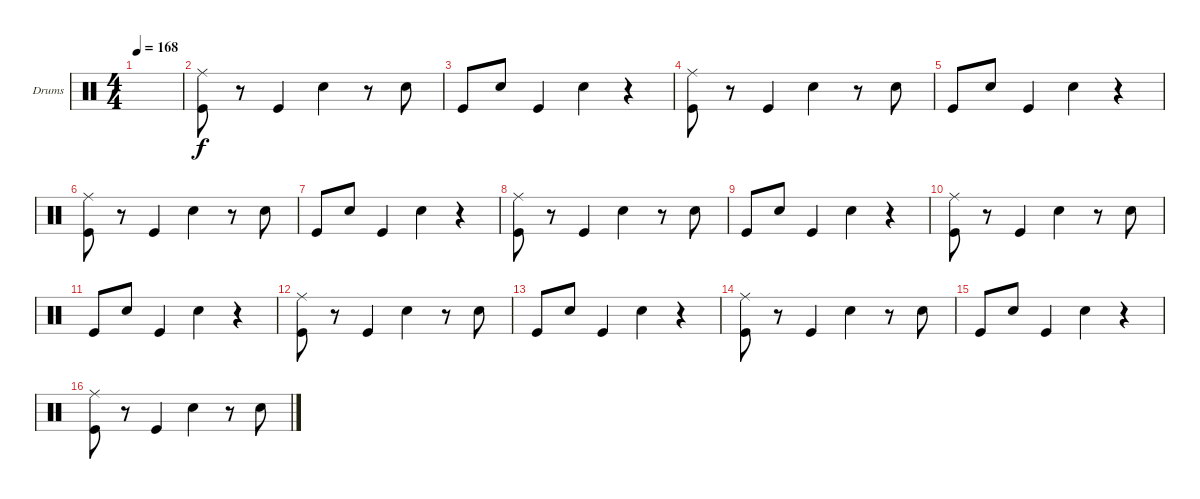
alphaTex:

\defaultSystemsLayout 4
\bracketExtendMode groupsimilarinstruments
\firstSystemTrackNameOrientation horizontal
\otherSystemsTrackNameOrientation horizontal
\track ("Е. Кулаков" "Drums") {instrument percussion}
\staff {score}
\articulation defaults
\ts (4 4)
\tempo 168
\clef neutral
\scale
0.474178
\ks c
|
\scale
0.262911 ("Kick (hit)" "Ride (middle)").8 r.8 "Kick (hit)".4 "Snare (hit) 2".4 r.8 "Snare (hit) 2".8 |
\scale
0.262911 "Kick (hit)".8 "Snare (hit) 2".8 "Kick (hit)".4 "Snare (hit) 2".4 r.4 |
\scale
0.333333 ("Kick (hit)" "Ride (middle)").8 r.8 "Kick (hit)".4 "Snare (hit) 2".4 r.8 "Snare (hit) 2".8 |
\scale
0.333333 "Kick (hit)".8 "Snare (hit) 2".8 "Kick (hit)".4 "Snare (hit) 2".4 r.4 |
\scale
0.333333 ("Kick (hit)" "Ride (middle)").8 r.8 "Kick (hit)".4 "Snare (hit) 2".4 r.8 "Snare (hit) 2".8 |
\scale
0.333333 "Kick (hit)".8 "Snare (hit) 2".8 "Kick (hit)".4 "Snare (hit) 2".4 r.4 |
\scale
0.333333 ("Kick (hit)" "Ride (middle)").8 r.8 "Kick (hit)".4 "Snare (hit) 2".4 r.8 "Snare (hit) 2".8 |
\scale
0.333333 "Kick (hit)".8 "Snare (hit) 2".8 "Kick (hit)".4 "Snare (hit) 2".4 r.4 |
\scale
0.333333 ("Kick (hit)" "Ride (middle)").8 r.8 "Kick (hit)".4 "Snare (hit) 2".4 r.8 "Snare (hit) 2".8 |
\scale
0.333333 "Kick (hit)".8 "Snare (hit) 2".8 "Kick (hit)".4 "Snare (hit) 2".4 r.4 |
\scale
0.333333 ("Kick (hit)" "Ride (middle)").8 r.8 "Kick (hit)".4 "Snare (hit) 2".4 r.8 "Snare (hit) 2".8 |
\scale
0.333333 "Kick (hit)".8 "Snare (hit) 2".8 "Kick (hit)".4 "Snare (hit) 2".4 r.4 |
\scale
0.333333 ("Kick (hit)" "Ride (middle)").8 r.8 "Kick (hit)".4 "Snare (hit) 2".4 r.8 "Snare (hit) 2".8 |
\scale
0.333333 "Kick (hit)".8 "Snare (hit) 2".8 "Kick (hit)".4 "Snare (hit) 2".4 r.4 |
\scale
0.333333 ("Kick (hit)" "Ride (middle)").8 r.8 "Kick (hit)".4 "Snare (hit) 2".4 r.8 "Snare (hit) 2".8
